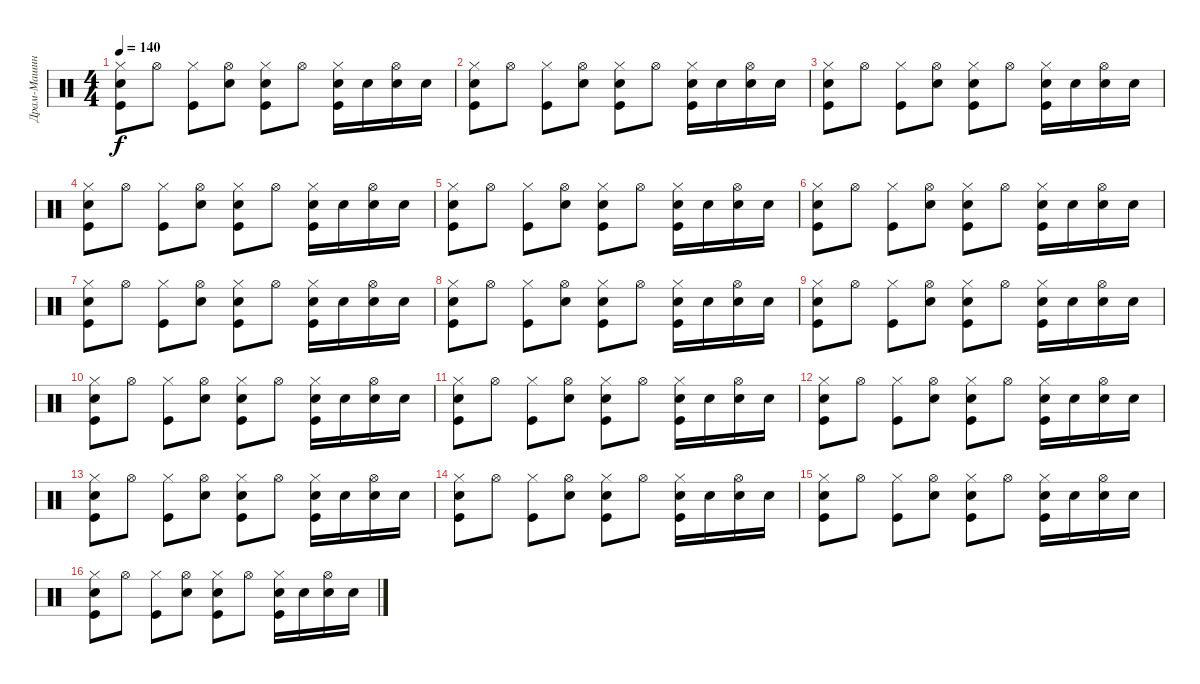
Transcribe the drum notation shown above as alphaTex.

\track ("Драм-Машина" "Драм-Машин") {instrument percussion}
\staff {score}
\articulation defaults
\ts (4 4)
\tempo 140
\clef neutral
\ks c
("Hi-Hat (closed)" "Kick (hit)" "Snare (hit) 2").8{dy f} "Hi-Hat (open)".8 ("Hi-Hat (closed)" "Kick (hit)").8 ("Hi-Hat (open)" "Snare (hit) 2").8 ("Hi-Hat (closed)" "Kick (hit)" "Snare (hit) 2").8 "Hi-Hat (open)".8 ("Hi-Hat (closed)" "Kick (hit)" "Snare (hit) 2").16 "Snare (hit) 2".16 ("Hi-Hat (open)" "Snare (hit) 2").16 "Snare (hit) 2".16 |
("Snare (hit) 2" "Hi-Hat (closed)" "Kick (hit)").8 "Hi-Hat (open)".8 ("Hi-Hat (closed)" "Kick (hit)").8 ("Snare (hit) 2" "Hi-Hat (open)").8 ("Snare (hit) 2" "Hi-Hat (closed)" "Kick (hit)").8 "Hi-Hat (open)".8 ("Snare (hit) 2" "Hi-Hat (closed)" "Kick (hit)").16 "Snare (hit) 2".16 ("Snare (hit) 2" "Hi-Hat (open)").16 "Snare (hit) 2".16 |
("Snare (hit) 2" "Hi-Hat (closed)" "Kick (hit)").8 "Hi-Hat (open)".8 ("Hi-Hat (closed)" "Kick (hit)").8 ("Snare (hit) 2" "Hi-Hat (open)").8 ("Snare (hit) 2" "Hi-Hat (closed)" "Kick (hit)").8 "Hi-Hat (open)".8 ("Snare (hit) 2" "Hi-Hat (closed)" "Kick (hit)").16 "Snare (hit) 2".16 ("Snare (hit) 2" "Hi-Hat (open)").16 "Snare (hit) 2".16 |
("Snare (hit) 2" "Hi-Hat (closed)" "Kick (hit)").8 "Hi-Hat (open)".8 ("Hi-Hat (closed)" "Kick (hit)").8 ("Snare (hit) 2" "Hi-Hat (open)").8 ("Snare (hit) 2" "Hi-Hat (closed)" "Kick (hit)").8 "Hi-Hat (open)".8 ("Snare (hit) 2" "Hi-Hat (closed)" "Kick (hit)").16 "Snare (hit) 2".16 ("Snare (hit) 2" "Hi-Hat (open)").16 "Snare (hit) 2".16 |
("Snare (hit) 2" "Hi-Hat (closed)" "Kick (hit)").8 "Hi-Hat (open)".8 ("Hi-Hat (closed)" "Kick (hit)").8 ("Snare (hit) 2" "Hi-Hat (open)").8 ("Snare (hit) 2" "Hi-Hat (closed)" "Kick (hit)").8 "Hi-Hat (open)".8 ("Snare (hit) 2" "Hi-Hat (closed)" "Kick (hit)").16 "Snare (hit) 2".16 ("Snare (hit) 2" "Hi-Hat (open)").16 "Snare (hit) 2".16 |
("Snare (hit) 2" "Hi-Hat (closed)" "Kick (hit)").8 "Hi-Hat (open)".8 ("Hi-Hat (closed)" "Kick (hit)").8 ("Snare (hit) 2" "Hi-Hat (open)").8 ("Snare (hit) 2" "Hi-Hat (closed)" "Kick (hit)").8 "Hi-Hat (open)".8 ("Snare (hit) 2" "Hi-Hat (closed)" "Kick (hit)").16 "Snare (hit) 2".16 ("Snare (hit) 2" "Hi-Hat (open)").16 "Snare (hit) 2".16 |
("Snare (hit) 2" "Hi-Hat (closed)" "Kick (hit)").8 "Hi-Hat (open)".8 ("Hi-Hat (closed)" "Kick (hit)").8 ("Snare (hit) 2" "Hi-Hat (open)").8 ("Snare (hit) 2" "Hi-Hat (closed)" "Kick (hit)").8 "Hi-Hat (open)".8 ("Snare (hit) 2" "Hi-Hat (closed)" "Kick (hit)").16 "Snare (hit) 2".16 ("Snare (hit) 2" "Hi-Hat (open)").16 "Snare (hit) 2".16 |
("Snare (hit) 2" "Hi-Hat (closed)" "Kick (hit)").8 "Hi-Hat (open)".8 ("Hi-Hat (closed)" "Kick (hit)").8 ("Snare (hit) 2" "Hi-Hat (open)").8 ("Snare (hit) 2" "Hi-Hat (closed)" "Kick (hit)").8 "Hi-Hat (open)".8 ("Snare (hit) 2" "Hi-Hat (closed)" "Kick (hit)").16 "Snare (hit) 2".16 ("Snare (hit) 2" "Hi-Hat (open)").16 "Snare (hit) 2".16 |
("Hi-Hat (closed)" "Kick (hit)" "Snare (hit) 2").8 "Hi-Hat (open)".8 ("Hi-Hat (closed)" "Kick (hit)").8 ("Hi-Hat (open)" "Snare (hit) 2").8 ("Hi-Hat (closed)" "Kick (hit)" "Snare (hit) 2").8 "Hi-Hat (open)".8 ("Hi-Hat (closed)" "Kick (hit)" "Snare (hit) 2").16 "Snare (hit) 2".16 ("Hi-Hat (open)" "Snare (hit) 2").16 "Snare (hit) 2".16 |
("Snare (hit) 2" "Hi-Hat (closed)" "Kick (hit)").8 "Hi-Hat (open)".8 ("Hi-Hat (closed)" "Kick (hit)").8 ("Snare (hit) 2" "Hi-Hat (open)").8 ("Snare (hit) 2" "Hi-Hat (closed)" "Kick (hit)").8 "Hi-Hat (open)".8 ("Snare (hit) 2" "Hi-Hat (closed)" "Kick (hit)").16 "Snare (hit) 2".16 ("Snare (hit) 2" "Hi-Hat (open)").16 "Snare (hit) 2".16 |
("Hi-Hat (closed)" "Kick (hit)" "Snare (hit) 2").8 "Hi-Hat (open)".8 ("Hi-Hat (closed)" "Kick (hit)").8 ("Hi-Hat (open)" "Snare (hit) 2").8 ("Hi-Hat (closed)" "Kick (hit)" "Snare (hit) 2").8 "Hi-Hat (open)".8 ("Hi-Hat (closed)" "Kick (hit)" "Snare (hit) 2").16 "Snare (hit) 2".16 ("Hi-Hat (open)" "Snare (hit) 2").16 "Snare (hit) 2".16 |
("Hi-Hat (closed)" "Kick (hit)" "Snare (hit) 2").8 "Hi-Hat (open)".8 ("Hi-Hat (closed)" "Kick (hit)").8 ("Hi-Hat (open)" "Snare (hit) 2").8 ("Hi-Hat (closed)" "Kick (hit)" "Snare (hit) 2").8 "Hi-Hat (open)".8 ("Hi-Hat (closed)" "Kick (hit)" "Snare (hit) 2").16 "Snare (hit) 2".16 ("Hi-Hat (open)" "Snare (hit) 2").16 "Snare (hit) 2".16 |
("Hi-Hat (closed)" "Kick (hit)" "Snare (hit) 2").8 "Hi-Hat (open)".8 ("Hi-Hat (closed)" "Kick (hit)").8 ("Hi-Hat (open)" "Snare (hit) 2").8 ("Hi-Hat (closed)" "Kick (hit)" "Snare (hit) 2").8 "Hi-Hat (open)".8 ("Hi-Hat (closed)" "Kick (hit)" "Snare (hit) 2").16 "Snare (hit) 2".16 ("Hi-Hat (open)" "Snare (hit) 2").16 "Snare (hit) 2".16 |
("Hi-Hat (closed)" "Kick (hit)" "Snare (hit) 2").8 "Hi-Hat (open)".8 ("Hi-Hat (closed)" "Kick (hit)").8 ("Hi-Hat (open)" "Snare (hit) 2").8 ("Hi-Hat (closed)" "Kick (hit)" "Snare (hit) 2").8 "Hi-Hat (open)".8 ("Hi-Hat (closed)" "Kick (hit)" "Snare (hit) 2").16 "Snare (hit) 2".16 ("Hi-Hat (open)" "Snare (hit) 2").16 "Snare (hit) 2".16 |
("Snare (hit) 2" "Hi-Hat (closed)" "Kick (hit)").8 "Hi-Hat (open)".8 ("Hi-Hat (closed)" "Kick (hit)").8 ("Snare (hit) 2" "Hi-Hat (open)").8 ("Snare (hit) 2" "Hi-Hat (closed)" "Kick (hit)").8 "Hi-Hat (open)".8 ("Snare (hit) 2" "Hi-Hat (closed)" "Kick (hit)").16 "Snare (hit) 2".16 ("Snare (hit) 2" "Hi-Hat (open)").16 "Snare (hit) 2".16 |
("Snare (hit) 2" "Hi-Hat (closed)" "Kick (hit)").8 "Hi-Hat (open)".8 ("Hi-Hat (closed)" "Kick (hit)").8 ("Snare (hit) 2" "Hi-Hat (open)").8 ("Snare (hit) 2" "Hi-Hat (closed)" "Kick (hit)").8 "Hi-Hat (open)".8 ("Snare (hit) 2" "Hi-Hat (closed)" "Kick (hit)").16 "Snare (hit) 2".16 ("Snare (hit) 2" "Hi-Hat (open)").16 "Snare (hit) 2".16
